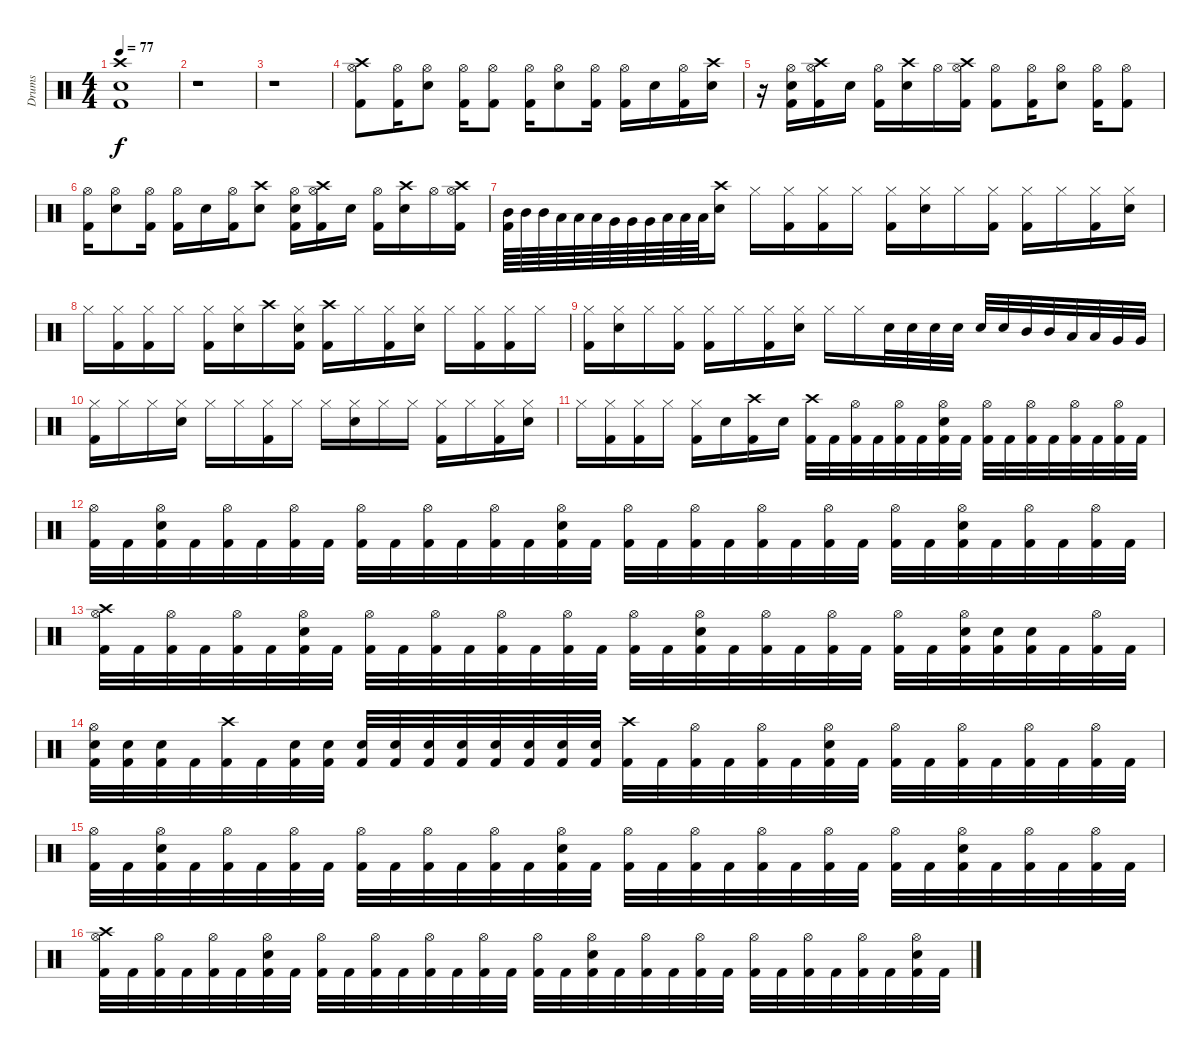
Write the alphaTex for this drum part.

\track ("Drums" "Drums") {instrument percussion}
\staff {score}
\articulation defaults
\ts (4 4)
\tempo 77
\clef neutral
\ks c
("Crash high (hit)" "Electric Snare (hit)" "Kick (hit) 2").1{dy f} |
r.1 |
r.1 |
("Crash high (hit)" "Hi-Hat (open)" "Kick (hit) 2").8 ("Hi-Hat (open)" "Kick (hit) 2").16 ("Hi-Hat (open)" "Snare (hit) 2").8 ("Hi-Hat (open)" "Kick (hit) 2").16 ("Hi-Hat (open)" "Kick (hit) 2").8 ("Hi-Hat (open)" "Kick (hit) 2").16 ("Hi-Hat (open)" "Snare (hit) 2").8 ("Hi-Hat (open)" "Kick (hit) 2").16 ("Hi-Hat (open)" "Kick (hit) 2").16 "Snare (hit) 2".16 ("Hi-Hat (open)" "Kick (hit) 2").16 ("Crash high (hit)" "Snare (hit) 2").16 |
r.16 ("Hi-Hat (open)" "Snare (hit) 2" "Kick (hit) 2").16 ("Crash high (hit)" "Hi-Hat (open)" "Kick (hit) 2").16 "Snare (hit) 2".16 ("Hi-Hat (open)" "Kick (hit) 2").16 ("Crash high (hit)" "Snare (hit) 2").16 "Hi-Hat (open)".16 ("Crash high (hit)" "Hi-Hat (open)" "Kick (hit) 2").16 ("Hi-Hat (open)" "Kick (hit) 2").8 ("Hi-Hat (open)" "Kick (hit) 2").16 ("Hi-Hat (open)" "Snare (hit) 2").8 ("Hi-Hat (open)" "Kick (hit) 2").16 ("Hi-Hat (open)" "Kick (hit) 2").8 |
("Hi-Hat (open)" "Kick (hit) 2").16 ("Hi-Hat (open)" "Snare (hit) 2").8 ("Hi-Hat (open)" "Kick (hit) 2").16 ("Hi-Hat (open)" "Kick (hit) 2").16 "Snare (hit) 2".16 ("Hi-Hat (open)" "Kick (hit) 2").16 ("Crash high (hit)" "Snare (hit) 2").8 ("Hi-Hat (open)" "Snare (hit) 2" "Kick (hit) 2").16 ("Crash high (hit)" "Hi-Hat (open)" "Kick (hit) 2").16 "Snare (hit) 2".16 ("Hi-Hat (open)" "Kick (hit) 2").16 ("Crash high (hit)" "Snare (hit) 2").16 "Hi-Hat (open)".16 ("Crash high (hit)" "Hi-Hat (open)" "Kick (hit) 2").16 |
("Mid Tom (hit)" "Kick (hit) 2").64 "Mid Tom (hit)".64 "Mid Tom (hit)".64 "Low Tom (hit)".64 "Low Tom (hit)".64 "Low Tom (hit)".64 "Very Low Tom (hit)".64 "Very Low Tom (hit)".64 "Very Low Tom (hit)".64 "Low Floor Tom (hit)".64 "Low Floor Tom (hit)".64 "Low Floor Tom (hit)".64 ("Crash high (hit)" "Snare (hit) 2").16 "Hi-Hat (closed)".16 ("Hi-Hat (closed)" "Kick (hit) 2").16 ("Hi-Hat (closed)" "Kick (hit) 2").16 "Hi-Hat (closed)".16 ("Hi-Hat (closed)" "Kick (hit) 2").16 ("Hi-Hat (closed)" "Snare (hit) 2").16 "Hi-Hat (closed)".16 ("Hi-Hat (closed)" "Kick (hit) 2").16 ("Hi-Hat (closed)" "Kick (hit) 2").16 "Hi-Hat (closed)".16 ("Hi-Hat (closed)" "Kick (hit) 2").16 ("Hi-Hat (closed)" "Snare (hit) 2").16 |
"Hi-Hat (closed)".16 ("Hi-Hat (closed)" "Kick (hit) 2").16 ("Hi-Hat (closed)" "Kick (hit) 2").16 "Hi-Hat (closed)".16 ("Hi-Hat (closed)" "Kick (hit) 2").16 ("Hi-Hat (closed)" "Snare (hit) 2").16 "Crash high (hit)".16 ("Hi-Hat (closed)" "Snare (hit) 2" "Kick (hit) 2").16 ("Crash high (hit)" "Kick (hit) 2").16 "Hi-Hat (closed)".16 ("Hi-Hat (closed)" "Kick (hit) 2").16 ("Hi-Hat (closed)" "Snare (hit) 2").16 "Hi-Hat (closed)".16 ("Hi-Hat (closed)" "Kick (hit) 2").16 ("Hi-Hat (closed)" "Kick (hit) 2").16 "Hi-Hat (closed)".16 |
("Hi-Hat (closed)" "Kick (hit) 2").16 ("Hi-Hat (closed)" "Snare (hit) 2").16 "Hi-Hat (closed)".16 ("Hi-Hat (closed)" "Kick (hit) 2").16 ("Hi-Hat (closed)" "Kick (hit) 2").16 "Hi-Hat (closed)".16 ("Hi-Hat (closed)" "Kick (hit) 2").16 ("Hi-Hat (closed)" "Snare (hit) 2").16 "Hi-Hat (closed)".16 "Hi-Hat (closed)".16 "Snare (hit) 2".32 "Snare (hit) 2".32 "Snare (hit) 2".32 "Snare (hit) 2".32 "Snare (hit) 2".32 "Snare (hit) 2".32 "Mid Tom (hit)".32 "Mid Tom (hit)".32 "Low Tom (hit)".32 "Low Tom (hit)".32 "Very Low Tom (hit)".32 "Very Low Tom (hit)".32 |
("Hi-Hat (closed)" "Kick (hit) 2").16 "Hi-Hat (closed)".16 "Hi-Hat (closed)".16 ("Hi-Hat (closed)" "Snare (hit) 2").16 "Hi-Hat (closed)".16 "Hi-Hat (closed)".16 ("Hi-Hat (closed)" "Kick (hit) 2").16 "Hi-Hat (closed)".16 "Hi-Hat (closed)".16 ("Hi-Hat (closed)" "Snare (hit) 2").16 "Hi-Hat (closed)".16 "Hi-Hat (closed)".16 ("Hi-Hat (closed)" "Kick (hit) 2").16 "Hi-Hat (closed)".16 ("Hi-Hat (closed)" "Kick (hit) 2").16 ("Hi-Hat (closed)" "Snare (hit) 2").16 |
"Hi-Hat (closed)".16 ("Hi-Hat (closed)" "Kick (hit) 2").16 ("Hi-Hat (closed)" "Kick (hit) 2").16 "Hi-Hat (closed)".16 ("Hi-Hat (closed)" "Kick (hit) 2").16 "Snare (hit) 2".16 ("Crash high (hit)" "Kick (hit) 2").16 "Snare (hit) 2".16 ("Crash high (hit)" "Kick (hit) 2").32 "Kick (hit) 2".32 ("Hi-Hat (open)" "Kick (hit) 2").32 "Kick (hit) 2".32 ("Hi-Hat (open)" "Kick (hit) 2").32 "Kick (hit) 2".32 ("Hi-Hat (open)" "Snare (hit) 2" "Kick (hit) 2").32 "Kick (hit) 2".32 ("Hi-Hat (open)" "Kick (hit) 2").32 "Kick (hit) 2".32 ("Hi-Hat (open)" "Kick (hit) 2").32 "Kick (hit) 2".32 ("Hi-Hat (open)" "Kick (hit) 2").32 "Kick (hit) 2".32 ("Hi-Hat (open)" "Kick (hit) 2").32 "Kick (hit) 2".32 |
("Hi-Hat (open)" "Kick (hit) 2").32 "Kick (hit) 2".32 ("Hi-Hat (open)" "Snare (hit) 2" "Kick (hit) 2").32 "Kick (hit) 2".32 ("Hi-Hat (open)" "Kick (hit) 2").32 "Kick (hit) 2".32 ("Hi-Hat (open)" "Kick (hit) 2").32 "Kick (hit) 2".32 ("Hi-Hat (open)" "Kick (hit) 2").32 "Kick (hit) 2".32 ("Hi-Hat (open)" "Kick (hit) 2").32 "Kick (hit) 2".32 ("Hi-Hat (open)" "Kick (hit) 2").32 "Kick (hit) 2".32 ("Hi-Hat (open)" "Snare (hit) 2" "Kick (hit) 2").32 "Kick (hit) 2".32 ("Hi-Hat (open)" "Kick (hit) 2").32 "Kick (hit) 2".32 ("Hi-Hat (open)" "Kick (hit) 2").32 "Kick (hit) 2".32 ("Hi-Hat (open)" "Kick (hit) 2").32 "Kick (hit) 2".32 ("Hi-Hat (open)" "Kick (hit) 2").32 "Kick (hit) 2".32 ("Hi-Hat (open)" "Kick (hit) 2").32 "Kick (hit) 2".32 ("Hi-Hat (open)" "Snare (hit) 2" "Kick (hit) 2").32 "Kick (hit) 2".32 ("Hi-Hat (open)" "Kick (hit) 2").32 "Kick (hit) 2".32 ("Hi-Hat (open)" "Kick (hit) 2").32 "Kick (hit) 2".32 |
("Crash high (hit)" "Hi-Hat (open)" "Kick (hit) 2").32 "Kick (hit) 2".32 ("Hi-Hat (open)" "Kick (hit) 2").32 "Kick (hit) 2".32 ("Hi-Hat (open)" "Kick (hit) 2").32 "Kick (hit) 2".32 ("Hi-Hat (open)" "Snare (hit) 2" "Kick (hit) 2").32 "Kick (hit) 2".32 ("Hi-Hat (open)" "Kick (hit) 2").32 "Kick (hit) 2".32 ("Hi-Hat (open)" "Kick (hit) 2").32 "Kick (hit) 2".32 ("Hi-Hat (open)" "Kick (hit) 2").32 "Kick (hit) 2".32 ("Hi-Hat (open)" "Kick (hit) 2").32 "Kick (hit) 2".32 ("Hi-Hat (open)" "Kick (hit) 2").32 "Kick (hit) 2".32 ("Hi-Hat (open)" "Snare (hit) 2" "Kick (hit) 2").32 "Kick (hit) 2".32 ("Hi-Hat (open)" "Kick (hit) 2").32 "Kick (hit) 2".32 ("Hi-Hat (open)" "Kick (hit) 2").32 "Kick (hit) 2".32 ("Hi-Hat (open)" "Kick (hit) 2").32 "Kick (hit) 2".32 ("Hi-Hat (open)" "Snare (hit) 2" "Kick (hit) 2").32 ("Snare (hit) 2" "Kick (hit) 2").32 ("Snare (hit) 2" "Kick (hit) 2").32 "Kick (hit) 2".32 ("Hi-Hat (open)" "Kick (hit) 2").32 "Kick (hit) 2".32 |
("Hi-Hat (open)" "Snare (hit) 2" "Kick (hit) 2").32 ("Snare (hit) 2" "Kick (hit) 2").32 ("Snare (hit) 2" "Kick (hit) 2").32 "Kick (hit) 2".32 ("Crash high (hit)" "Kick (hit) 2").32 "Kick (hit) 2".32 ("Snare (hit) 2" "Kick (hit) 2").32 ("Snare (hit) 2" "Kick (hit) 2").32 ("Snare (hit) 2" "Kick (hit) 2").32 ("Snare (hit) 2" "Kick (hit) 2").32 ("Snare (hit) 2" "Kick (hit) 2").32 ("Snare (hit) 2" "Kick (hit) 2").32 ("Snare (hit) 2" "Kick (hit) 2").32 ("Snare (hit) 2" "Kick (hit) 2").32 ("Snare (hit) 2" "Kick (hit) 2").32 ("Snare (hit) 2" "Kick (hit) 2").32 ("Crash high (hit)" "Kick (hit) 2").32 "Kick (hit) 2".32 ("Hi-Hat (open)" "Kick (hit) 2").32 "Kick (hit) 2".32 ("Hi-Hat (open)" "Kick (hit) 2").32 "Kick (hit) 2".32 ("Hi-Hat (open)" "Snare (hit) 2" "Kick (hit) 2").32 "Kick (hit) 2".32 ("Hi-Hat (open)" "Kick (hit) 2").32 "Kick (hit) 2".32 ("Hi-Hat (open)" "Kick (hit) 2").32 "Kick (hit) 2".32 ("Hi-Hat (open)" "Kick (hit) 2").32 "Kick (hit) 2".32 ("Hi-Hat (open)" "Kick (hit) 2").32 "Kick (hit) 2".32 |
("Hi-Hat (open)" "Kick (hit) 2").32 "Kick (hit) 2".32 ("Hi-Hat (open)" "Snare (hit) 2" "Kick (hit) 2").32 "Kick (hit) 2".32 ("Hi-Hat (open)" "Kick (hit) 2").32 "Kick (hit) 2".32 ("Hi-Hat (open)" "Kick (hit) 2").32 "Kick (hit) 2".32 ("Hi-Hat (open)" "Kick (hit) 2").32 "Kick (hit) 2".32 ("Hi-Hat (open)" "Kick (hit) 2").32 "Kick (hit) 2".32 ("Hi-Hat (open)" "Kick (hit) 2").32 "Kick (hit) 2".32 ("Hi-Hat (open)" "Snare (hit) 2" "Kick (hit) 2").32 "Kick (hit) 2".32 ("Hi-Hat (open)" "Kick (hit) 2").32 "Kick (hit) 2".32 ("Hi-Hat (open)" "Kick (hit) 2").32 "Kick (hit) 2".32 ("Hi-Hat (open)" "Kick (hit) 2").32 "Kick (hit) 2".32 ("Hi-Hat (open)" "Kick (hit) 2").32 "Kick (hit) 2".32 ("Hi-Hat (open)" "Kick (hit) 2").32 "Kick (hit) 2".32 ("Hi-Hat (open)" "Snare (hit) 2" "Kick (hit) 2").32 "Kick (hit) 2".32 ("Hi-Hat (open)" "Kick (hit) 2").32 "Kick (hit) 2".32 ("Hi-Hat (open)" "Kick (hit) 2").32 "Kick (hit) 2".32 |
("Crash high (hit)" "Hi-Hat (open)" "Kick (hit) 2").32 "Kick (hit) 2".32 ("Hi-Hat (open)" "Kick (hit) 2").32 "Kick (hit) 2".32 ("Hi-Hat (open)" "Kick (hit) 2").32 "Kick (hit) 2".32 ("Hi-Hat (open)" "Snare (hit) 2" "Kick (hit) 2").32 "Kick (hit) 2".32 ("Hi-Hat (open)" "Kick (hit) 2").32 "Kick (hit) 2".32 ("Hi-Hat (open)" "Kick (hit) 2").32 "Kick (hit) 2".32 ("Hi-Hat (open)" "Kick (hit) 2").32 "Kick (hit) 2".32 ("Hi-Hat (open)" "Kick (hit) 2").32 "Kick (hit) 2".32 ("Hi-Hat (open)" "Kick (hit) 2").32 "Kick (hit) 2".32 ("Hi-Hat (open)" "Snare (hit) 2" "Kick (hit) 2").32 "Kick (hit) 2".32 ("Hi-Hat (open)" "Kick (hit) 2").32 "Kick (hit) 2".32 ("Hi-Hat (open)" "Kick (hit) 2").32 "Kick (hit) 2".32 ("Hi-Hat (open)" "Kick (hit) 2").32 "Kick (hit) 2".32 ("Hi-Hat (open)" "Kick (hit) 2").32 "Kick (hit) 2".32 ("Hi-Hat (open)" "Kick (hit) 2").32 "Kick (hit) 2".32 ("Hi-Hat (open)" "Snare (hit) 2" "Kick (hit) 2").32 "Kick (hit) 2".32
